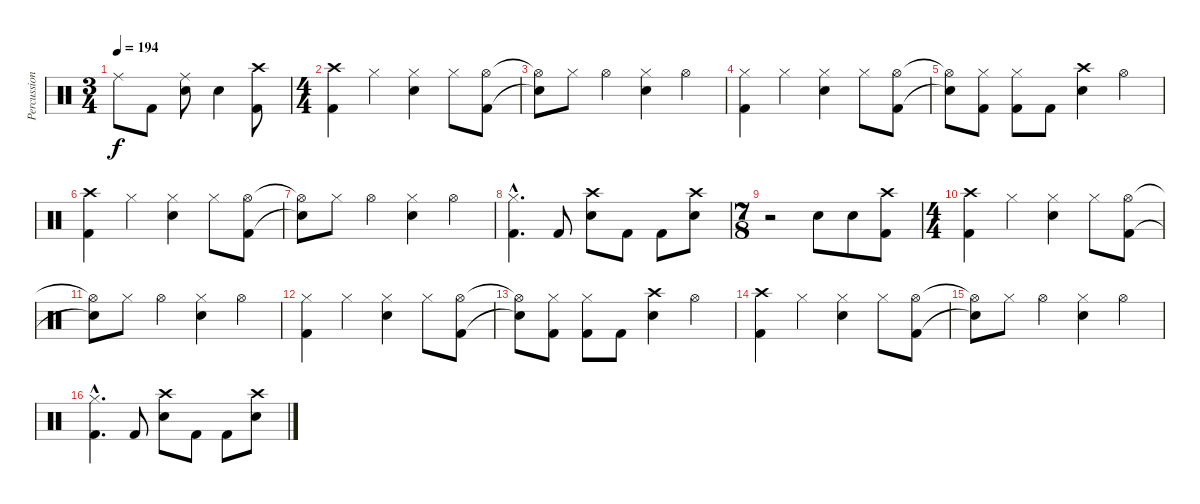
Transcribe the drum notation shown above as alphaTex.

\track ("Percussions" "Percussion") {instrument percussion}
\staff {score}
\articulation defaults
\ts (3 4)
\tempo 194
\clef neutral
\ks c "Ride (middle)".8{dy f} "Kick (hit) 2".8
("Ride (middle)" "Electric Snare (hit)").8 "Electric Snare (hit)".4 ("Crash high (hit)" "Kick (hit) 2").8 |
\ts (4 4)
("Crash high (hit)" "Kick (hit) 2").4 "Hi-Hat (closed)".4 ("Hi-Hat (closed)" "Electric Snare (hit)").4 "Hi-Hat (closed)".8 ("Hi-Hat (open)" "Kick (hit) 2").8 |
("Hi-Hat (open)"{t} "Snare (hit)"{t}).8 "Hi-Hat (closed)".8 "Hi-Hat (open)".4 ("Hi-Hat (closed)" "Electric Snare (hit)").4 "Hi-Hat (open)".4 |
("Hi-Hat (closed)" "Kick (hit) 2").4 "Hi-Hat (closed)".4 ("Hi-Hat (closed)" "Electric Snare (hit)").4 "Hi-Hat (closed)".8 ("Hi-Hat (open)" "Kick (hit) 2").8 |
("Hi-Hat (open)"{t} "Snare (hit)"{t}).8 ("Hi-Hat (closed)" "Kick (hit) 2").8 ("Hi-Hat (closed)" "Kick (hit) 2").8 "Kick (hit) 2".8 ("Crash high (hit)" "Electric Snare (hit)").4 "Hi-Hat (open)".4 |
("Crash high (hit)" "Kick (hit) 2").4 "Hi-Hat (closed)".4 ("Hi-Hat (closed)" "Electric Snare (hit)").4 "Hi-Hat (closed)".8 ("Hi-Hat (open)" "Kick (hit) 2").8 |
("Hi-Hat (open)"{t} "Snare (hit)"{t}).8 "Hi-Hat (closed)".8 "Hi-Hat (open)".4 ("Hi-Hat (closed)" "Electric Snare (hit)").4 "Hi-Hat (open)".4 |
("Hi-Hat (closed)"{hac} "Kick (hit) 2"{hac}).4{d} "Kick (hit) 2".8 ("Crash high (hit)" "Electric Snare (hit)").8 "Kick (hit) 2".8 "Kick (hit) 2".8 ("Crash high (hit)" "Electric Snare (hit)").8 |
\ts (7 8)
r.2 "Electric Snare (hit)".8 "Electric Snare (hit)".8 ("Crash high (hit)" "Kick (hit) 2").8 |
\ts (4 4)
("Crash high (hit)" "Kick (hit) 2").4 "Hi-Hat (closed)".4 ("Hi-Hat (closed)" "Electric Snare (hit)").4 "Hi-Hat (closed)".8 ("Hi-Hat (open)" "Kick (hit) 2").8 |
("Hi-Hat (open)"{t} "Snare (hit)"{t}).8 "Hi-Hat (closed)".8 "Hi-Hat (open)".4 ("Hi-Hat (closed)" "Electric Snare (hit)").4 "Hi-Hat (open)".4 |
("Hi-Hat (closed)" "Kick (hit) 2").4 "Hi-Hat (closed)".4 ("Hi-Hat (closed)" "Electric Snare (hit)").4 "Hi-Hat (closed)".8 ("Hi-Hat (open)" "Kick (hit) 2").8 |
("Hi-Hat (open)"{t} "Snare (hit)"{t}).8 ("Hi-Hat (closed)" "Kick (hit) 2").8 ("Hi-Hat (closed)" "Kick (hit) 2").8 "Kick (hit) 2".8 ("Crash high (hit)" "Electric Snare (hit)").4 "Hi-Hat (open)".4 |
("Crash high (hit)" "Kick (hit) 2").4 "Hi-Hat (closed)".4 ("Hi-Hat (closed)" "Electric Snare (hit)").4 "Hi-Hat (closed)".8 ("Hi-Hat (open)" "Kick (hit) 2").8 |
("Hi-Hat (open)"{t} "Snare (hit)"{t}).8 "Hi-Hat (closed)".8 "Hi-Hat (open)".4 ("Hi-Hat (closed)" "Electric Snare (hit)").4 "Hi-Hat (open)".4 |
("Hi-Hat (closed)"{hac} "Kick (hit) 2"{hac}).4{d} "Kick (hit) 2".8 ("Crash high (hit)" "Electric Snare (hit)").8 "Kick (hit) 2".8 "Kick (hit) 2".8 ("Crash high (hit)" "Electric Snare (hit)").8
